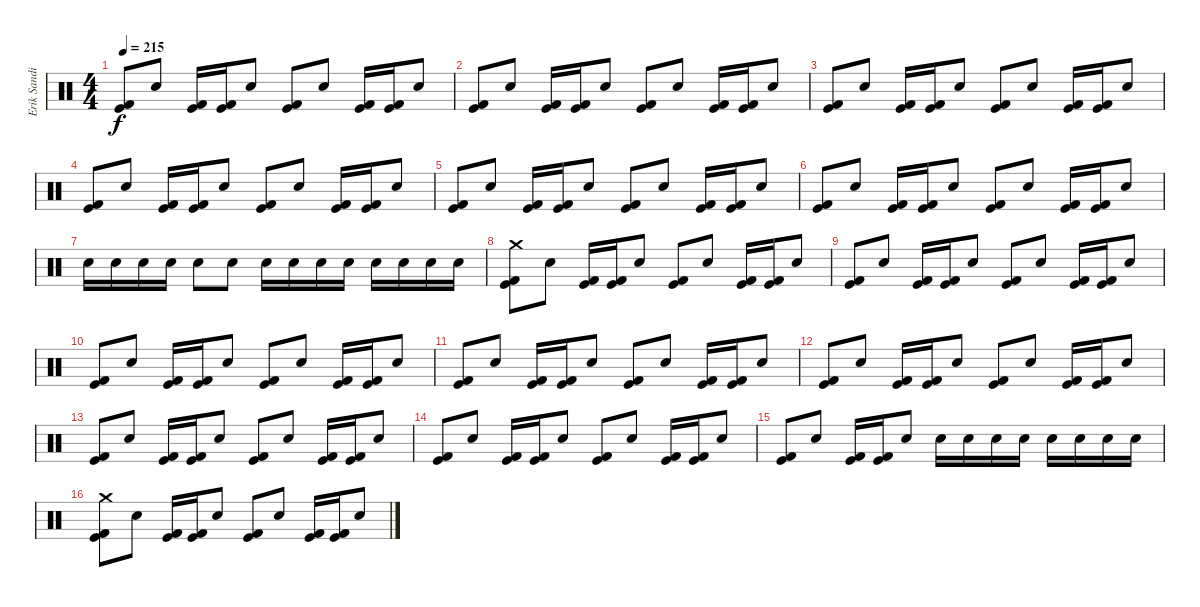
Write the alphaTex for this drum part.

\track ("Erik Sandin" "Erik Sandi") {instrument percussion}
\staff {score}
\articulation defaults
\ts (4 4)
\tempo 215
\clef neutral
\ks c
("Kick (hit) 2" "Kick (hit)").8{dy f} "Electric Snare (hit)".8 ("Kick (hit) 2" "Kick (hit)").16 ("Kick (hit) 2" "Kick (hit)").16 "Electric Snare (hit)".8 ("Kick (hit) 2" "Kick (hit)").8 "Electric Snare (hit)".8 ("Kick (hit) 2" "Kick (hit)").16 ("Kick (hit) 2" "Kick (hit)").16 "Electric Snare (hit)".8 |
("Kick (hit) 2" "Kick (hit)").8 "Electric Snare (hit)".8 ("Kick (hit) 2" "Kick (hit)").16 ("Kick (hit) 2" "Kick (hit)").16 "Electric Snare (hit)".8 ("Kick (hit) 2" "Kick (hit)").8 "Electric Snare (hit)".8 ("Kick (hit) 2" "Kick (hit)").16 ("Kick (hit) 2" "Kick (hit)").16 "Electric Snare (hit)".8 |
("Kick (hit) 2" "Kick (hit)").8 "Electric Snare (hit)".8 ("Kick (hit) 2" "Kick (hit)").16 ("Kick (hit) 2" "Kick (hit)").16 "Electric Snare (hit)".8 ("Kick (hit) 2" "Kick (hit)").8 "Electric Snare (hit)".8 ("Kick (hit) 2" "Kick (hit)").16 ("Kick (hit) 2" "Kick (hit)").16 "Electric Snare (hit)".8 |
("Kick (hit) 2" "Kick (hit)").8 "Electric Snare (hit)".8 ("Kick (hit) 2" "Kick (hit)").16 ("Kick (hit) 2" "Kick (hit)").16 "Electric Snare (hit)".8 ("Kick (hit) 2" "Kick (hit)").8 "Electric Snare (hit)".8 ("Kick (hit) 2" "Kick (hit)").16 ("Kick (hit) 2" "Kick (hit)").16 "Electric Snare (hit)".8 |
("Kick (hit) 2" "Kick (hit)").8 "Electric Snare (hit)".8 ("Kick (hit) 2" "Kick (hit)").16 ("Kick (hit) 2" "Kick (hit)").16 "Electric Snare (hit)".8 ("Kick (hit) 2" "Kick (hit)").8 "Electric Snare (hit)".8 ("Kick (hit) 2" "Kick (hit)").16 ("Kick (hit) 2" "Kick (hit)").16 "Electric Snare (hit)".8 |
("Kick (hit) 2" "Kick (hit)").8 "Electric Snare (hit)".8 ("Kick (hit) 2" "Kick (hit)").16 ("Kick (hit) 2" "Kick (hit)").16 "Electric Snare (hit)".8 ("Kick (hit) 2" "Kick (hit)").8 "Electric Snare (hit)".8 ("Kick (hit) 2" "Kick (hit)").16 ("Kick (hit) 2" "Kick (hit)").16 "Electric Snare (hit)".8 |
"Electric Snare (hit)".16 "Electric Snare (hit)".16 "Electric Snare (hit)".16 "Electric Snare (hit)".16 "Electric Snare (hit)".8 "Electric Snare (hit)".8 "Electric Snare (hit)".16 "Electric Snare (hit)".16 "Electric Snare (hit)".16 "Electric Snare (hit)".16 "Electric Snare (hit)".16 "Electric Snare (hit)".16 "Electric Snare (hit)".16 "Electric Snare (hit)".16 |
("Crash medium (hit)" "Kick (hit) 2" "Kick (hit)").8 "Electric Snare (hit)".8 ("Kick (hit) 2" "Kick (hit)").16 ("Kick (hit) 2" "Kick (hit)").16 "Electric Snare (hit)".8 ("Kick (hit) 2" "Kick (hit)").8 "Electric Snare (hit)".8 ("Kick (hit) 2" "Kick (hit)").16 ("Kick (hit) 2" "Kick (hit)").16 "Electric Snare (hit)".8 |
("Kick (hit) 2" "Kick (hit)").8 "Electric Snare (hit)".8 ("Kick (hit) 2" "Kick (hit)").16 ("Kick (hit) 2" "Kick (hit)").16 "Electric Snare (hit)".8 ("Kick (hit) 2" "Kick (hit)").8 "Electric Snare (hit)".8 ("Kick (hit) 2" "Kick (hit)").16 ("Kick (hit) 2" "Kick (hit)").16 "Electric Snare (hit)".8 |
("Kick (hit) 2" "Kick (hit)").8 "Electric Snare (hit)".8 ("Kick (hit) 2" "Kick (hit)").16 ("Kick (hit) 2" "Kick (hit)").16 "Electric Snare (hit)".8 ("Kick (hit) 2" "Kick (hit)").8 "Electric Snare (hit)".8 ("Kick (hit) 2" "Kick (hit)").16 ("Kick (hit) 2" "Kick (hit)").16 "Electric Snare (hit)".8 |
("Kick (hit) 2" "Kick (hit)").8 "Electric Snare (hit)".8 ("Kick (hit) 2" "Kick (hit)").16 ("Kick (hit) 2" "Kick (hit)").16 "Electric Snare (hit)".8 ("Kick (hit) 2" "Kick (hit)").8 "Electric Snare (hit)".8 ("Kick (hit) 2" "Kick (hit)").16 ("Kick (hit) 2" "Kick (hit)").16 "Electric Snare (hit)".8 |
("Kick (hit) 2" "Kick (hit)").8 "Electric Snare (hit)".8 ("Kick (hit) 2" "Kick (hit)").16 ("Kick (hit) 2" "Kick (hit)").16 "Electric Snare (hit)".8 ("Kick (hit) 2" "Kick (hit)").8 "Electric Snare (hit)".8 ("Kick (hit) 2" "Kick (hit)").16 ("Kick (hit) 2" "Kick (hit)").16 "Electric Snare (hit)".8 |
("Kick (hit) 2" "Kick (hit)").8 "Electric Snare (hit)".8 ("Kick (hit) 2" "Kick (hit)").16 ("Kick (hit) 2" "Kick (hit)").16 "Electric Snare (hit)".8 ("Kick (hit) 2" "Kick (hit)").8 "Electric Snare (hit)".8 ("Kick (hit) 2" "Kick (hit)").16 ("Kick (hit) 2" "Kick (hit)").16 "Electric Snare (hit)".8 |
("Kick (hit) 2" "Kick (hit)").8 "Electric Snare (hit)".8 ("Kick (hit) 2" "Kick (hit)").16 ("Kick (hit) 2" "Kick (hit)").16 "Electric Snare (hit)".8 ("Kick (hit) 2" "Kick (hit)").8 "Electric Snare (hit)".8 ("Kick (hit) 2" "Kick (hit)").16 ("Kick (hit) 2" "Kick (hit)").16 "Electric Snare (hit)".8 |
("Kick (hit) 2" "Kick (hit)").8 "Electric Snare (hit)".8 ("Kick (hit) 2" "Kick (hit)").16 ("Kick (hit) 2" "Kick (hit)").16 "Electric Snare (hit)".8 "Electric Snare (hit)".16 "Electric Snare (hit)".16 "Electric Snare (hit)".16 "Electric Snare (hit)".16 "Electric Snare (hit)".16 "Electric Snare (hit)".16 "Electric Snare (hit)".16 "Electric Snare (hit)".16 |
("Crash medium (hit)" "Kick (hit) 2" "Kick (hit)").8 "Electric Snare (hit)".8 ("Kick (hit) 2" "Kick (hit)").16 ("Kick (hit) 2" "Kick (hit)").16 "Electric Snare (hit)".8 ("Kick (hit) 2" "Kick (hit)").8 "Electric Snare (hit)".8 ("Kick (hit) 2" "Kick (hit)").16 ("Kick (hit) 2" "Kick (hit)").16 "Electric Snare (hit)".8
